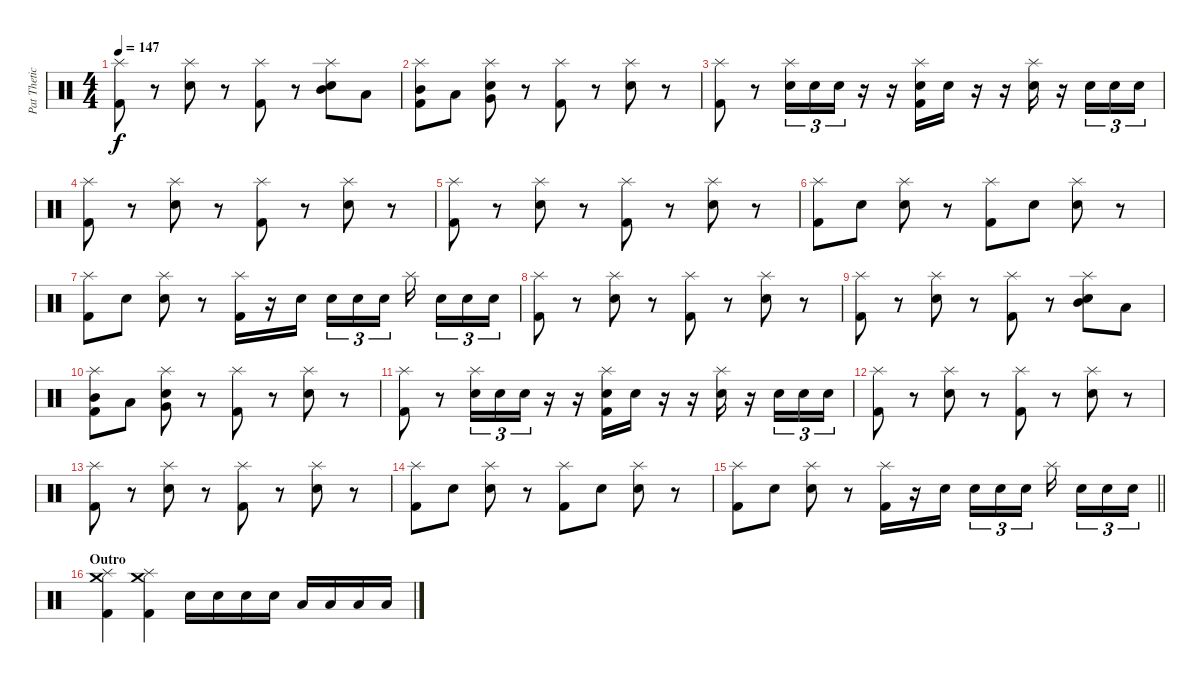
\track ("Pat Thetic Drums" "Pat Thetic") {instrument percussion}
\staff {score}
\articulation defaults
\ts (4 4)
\tempo 147
\clef neutral
\ks c
("Splash (hit)" "Kick (hit) 2").8{dy f} r.8 ("Splash (hit)" "Snare (hit) 2").8 r.8 ("Splash (hit)" "Kick (hit) 2").8 r.8 ("Splash (hit)" "Snare (hit) 2" "Mid Tom (hit)").8 "Low Floor Tom (hit)".8 |
("Splash (hit)" "Kick (hit) 2" "Mid Tom (hit)").8 "Low Floor Tom (hit)".8 ("Splash (hit)" "Snare (hit) 2" "Very Low Tom (hit)").8 r.8 ("Splash (hit)" "Kick (hit) 2").8 r.8 ("Splash (hit)" "Snare (hit) 2").8 r.8 |
("Splash (hit)" "Kick (hit) 2").8 r.8 ("Splash (hit)" "Snare (hit) 2").16{tu (3 2)} "Snare (hit) 2".16{tu (3 2)} "Snare (hit) 2".16{tu (3 2)} r.16 r.16 ("Splash (hit)" "Kick (hit) 2" "Snare (hit) 2").16 "Snare (hit) 2".16 r.16 r.16 ("Splash (hit)" "Snare (hit) 2").16 r.16 "Snare (hit) 2".16{tu (3 2)} "Snare (hit) 2".16{tu (3 2)} "Snare (hit) 2".16{tu (3 2)} |
("Splash (hit)" "Kick (hit) 2").8 r.8 ("Splash (hit)" "Snare (hit) 2").8 r.8 ("Splash (hit)" "Kick (hit) 2").8 r.8 ("Splash (hit)" "Snare (hit) 2").8 r.8 |
("Splash (hit)" "Kick (hit) 2").8 r.8 ("Splash (hit)" "Snare (hit) 2").8 r.8 ("Splash (hit)" "Kick (hit) 2").8 r.8 ("Splash (hit)" "Snare (hit) 2").8 r.8 |
("Splash (hit)" "Kick (hit) 2").8 "Snare (hit) 2".8 ("Splash (hit)" "Snare (hit) 2").8 r.8 ("Splash (hit)" "Kick (hit) 2").8 "Snare (hit) 2".8 ("Splash (hit)" "Snare (hit) 2").8 r.8 |
("Splash (hit)" "Kick (hit) 2").8 "Snare (hit) 2".8 ("Splash (hit)" "Snare (hit) 2").8 r.8 ("Splash (hit)" "Kick (hit) 2").16 r.16 "Snare (hit) 2".16{beam splitsecondary} "Snare (hit) 2".16{tu (3 2)} "Snare (hit) 2".16{tu (3 2)} "Snare (hit) 2".16{tu (3 2) beam splitsecondary} "Splash (hit)".16{beam splitsecondary} "Snare (hit) 2".16{tu (3 2)} "Snare (hit) 2".16{tu (3 2)} "Snare (hit) 2".16{tu (3 2)} |
("Splash (hit)" "Kick (hit) 2").8 r.8 ("Splash (hit)" "Snare (hit) 2").8 r.8 ("Splash (hit)" "Kick (hit) 2").8 r.8 ("Splash (hit)" "Snare (hit) 2").8 r.8 |
("Splash (hit)" "Kick (hit) 2").8 r.8 ("Splash (hit)" "Snare (hit) 2").8 r.8 ("Splash (hit)" "Kick (hit) 2").8 r.8 ("Splash (hit)" "Snare (hit) 2" "Mid Tom (hit)").8 "Low Floor Tom (hit)".8 |
("Splash (hit)" "Kick (hit) 2" "Mid Tom (hit)").8 "Low Floor Tom (hit)".8 ("Splash (hit)" "Snare (hit) 2" "Very Low Tom (hit)").8 r.8 ("Splash (hit)" "Kick (hit) 2").8 r.8 ("Splash (hit)" "Snare (hit) 2").8 r.8 |
("Splash (hit)" "Kick (hit) 2").8 r.8 ("Splash (hit)" "Snare (hit) 2").16{tu (3 2)} "Snare (hit) 2".16{tu (3 2)} "Snare (hit) 2".16{tu (3 2)} r.16 r.16 ("Splash (hit)" "Kick (hit) 2" "Snare (hit) 2").16 "Snare (hit) 2".16 r.16 r.16 ("Splash (hit)" "Snare (hit) 2").16 r.16 "Snare (hit) 2".16{tu (3 2)} "Snare (hit) 2".16{tu (3 2)} "Snare (hit) 2".16{tu (3 2)} |
("Splash (hit)" "Kick (hit) 2").8 r.8 ("Splash (hit)" "Snare (hit) 2").8 r.8 ("Splash (hit)" "Kick (hit) 2").8 r.8 ("Splash (hit)" "Snare (hit) 2").8 r.8 |
("Splash (hit)" "Kick (hit) 2").8 r.8 ("Splash (hit)" "Snare (hit) 2").8 r.8 ("Splash (hit)" "Kick (hit) 2").8 r.8 ("Splash (hit)" "Snare (hit) 2").8 r.8 |
("Splash (hit)" "Kick (hit) 2").8 "Snare (hit) 2".8 ("Splash (hit)" "Snare (hit) 2").8 r.8 ("Splash (hit)" "Kick (hit) 2").8 "Snare (hit) 2".8 ("Splash (hit)" "Snare (hit) 2").8 r.8 |
\barLineRight lightlight
("Splash (hit)" "Kick (hit) 2").8 "Snare (hit) 2".8 ("Splash (hit)" "Snare (hit) 2").8 r.8 ("Splash (hit)" "Kick (hit) 2").16 r.16 "Snare (hit) 2".16{beam splitsecondary} "Snare (hit) 2".16{tu (3 2)} "Snare (hit) 2".16{tu (3 2)} "Snare (hit) 2".16{tu (3 2) beam splitsecondary} "Splash (hit)".16{beam splitsecondary} "Snare (hit) 2".16{tu (3 2)} "Snare (hit) 2".16{tu (3 2)} "Snare (hit) 2".16{tu (3 2)} |
\section ("" "Outro")
("Splash (hit)" "Kick (hit) 2" "Crash medium (hit)").4 ("Splash (hit)" "Kick (hit) 2" "Crash medium (hit)").4 "Snare (hit) 2".16 "Snare (hit) 2".16 "Snare (hit) 2".16 "Snare (hit) 2".16 "Low Floor Tom (hit)".16 "Low Floor Tom (hit)".16 "Low Floor Tom (hit)".16 "Low Floor Tom (hit)".16
